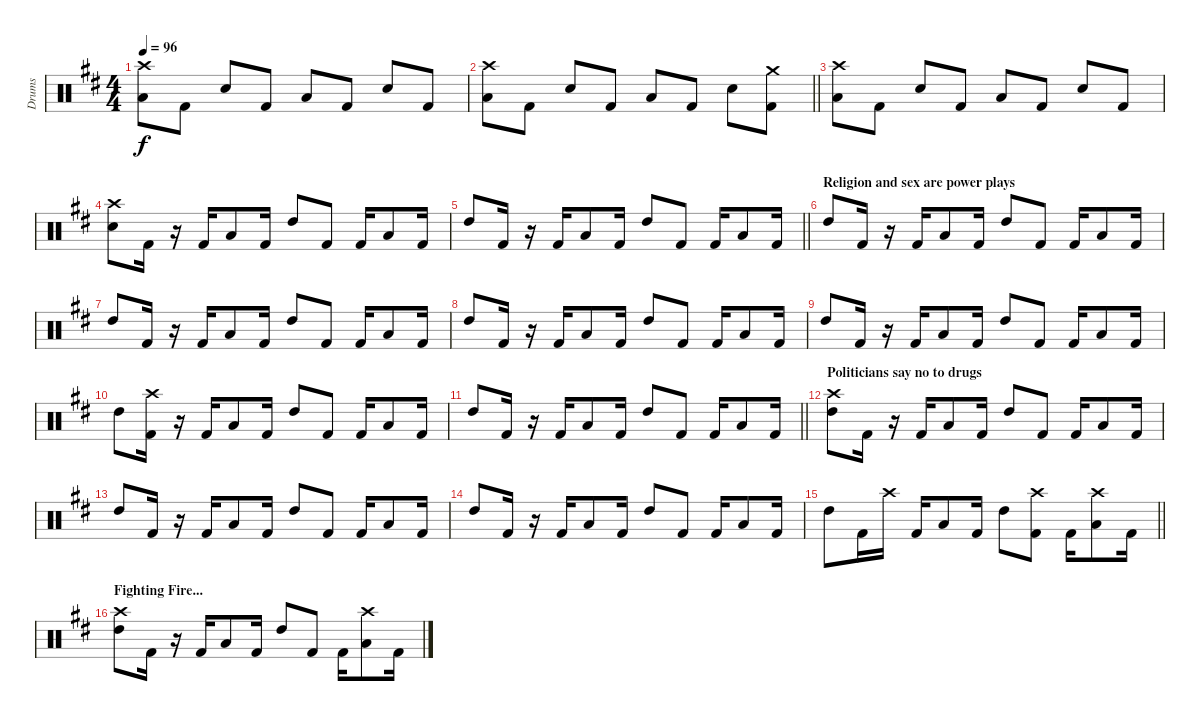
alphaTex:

\track ("Drums" "Drums") {instrument percussion}
\staff {score}
\articulation defaults
\ts (4 4)
\tempo 96
\clef neutral
\ks d
("Crash high (hit)" "Low Tom (hit)").8{dy f} "Kick (hit) 2".8 "Snare (hit) 2".8 "Kick (hit) 2".8 "Low Tom (hit)".8 "Kick (hit) 2".8 "Snare (hit) 2".8 "Kick (hit) 2".8 |
\barLineRight lightlight
("Crash high (hit)" "Low Tom (hit)").8 "Kick (hit) 2".8 "Snare (hit) 2".8 "Kick (hit) 2".8 "Low Tom (hit)".8 "Kick (hit) 2".8 "Snare (hit) 2".8 ("Crash medium (hit)" "Kick (hit) 2").8 |
("Crash high (hit)" "Low Tom (hit)").8 "Kick (hit) 2".8 "Snare (hit) 2".8 "Kick (hit) 2".8 "Low Tom (hit)".8 "Kick (hit) 2".8 "Snare (hit) 2".8 "Kick (hit) 2".8 |
("Crash high (hit)" "Snare (hit) 2").8 "Kick (hit) 2".16 r.16 "Kick (hit) 2".16 "Low Tom (hit)".8 "Kick (hit) 2".16 "High Tom (hit)".8 "Kick (hit) 2".8 "Kick (hit) 2".16 "Low Tom (hit)".8 "Kick (hit) 2".16 |
\barLineRight lightlight "High Tom (hit)".8 "Kick (hit) 2".16
r.16 "Kick (hit) 2".16 "Low Tom (hit)".8 "Kick (hit) 2".16 "High Tom (hit)".8 "Kick (hit) 2".8 "Kick (hit) 2".16 "Low Tom (hit)".8 "Kick (hit) 2".16 |
\section ("" "Religion and sex are power plays")
"High Tom (hit)".8 "Kick (hit) 2".16 r.16 "Kick (hit) 2".16 "Low Tom (hit)".8 "Kick (hit) 2".16 "High Tom (hit)".8 "Kick (hit) 2".8 "Kick (hit) 2".16 "Low Tom (hit)".8 "Kick (hit) 2".16 |
"High Tom (hit)".8 "Kick (hit) 2".16 r.16 "Kick (hit) 2".16 "Low Tom (hit)".8 "Kick (hit) 2".16 "High Tom (hit)".8 "Kick (hit) 2".8 "Kick (hit) 2".16 "Low Tom (hit)".8 "Kick (hit) 2".16 |
"High Tom (hit)".8 "Kick (hit) 2".16 r.16 "Kick (hit) 2".16 "Low Tom (hit)".8 "Kick (hit) 2".16 "High Tom (hit)".8 "Kick (hit) 2".8 "Kick (hit) 2".16 "Low Tom (hit)".8 "Kick (hit) 2".16 |
"High Tom (hit)".8 "Kick (hit) 2".16 r.16 "Kick (hit) 2".16 "Low Tom (hit)".8 "Kick (hit) 2".16 "High Tom (hit)".8 "Kick (hit) 2".8 "Kick (hit) 2".16 "Low Tom (hit)".8 "Kick (hit) 2".16 |
"High Tom (hit)".8 ("Crash high (hit)" "Kick (hit) 2").16 r.16 "Kick (hit) 2".16 "Low Tom (hit)".8 "Kick (hit) 2".16 "High Tom (hit)".8 "Kick (hit) 2".8 "Kick (hit) 2".16 "Low Tom (hit)".8 "Kick (hit) 2".16 |
\barLineRight lightlight "High Tom (hit)".8 "Kick (hit) 2".16
r.16 "Kick (hit) 2".16 "Low Tom (hit)".8 "Kick (hit) 2".16 "High Tom (hit)".8 "Kick (hit) 2".8 "Kick (hit) 2".16 "Low Tom (hit)".8 "Kick (hit) 2".16 |
\section ("" "Politicians say no to drugs")
("Crash high (hit)" "High Tom (hit)").8 "Kick (hit) 2".16 r.16 "Kick (hit) 2".16 "Low Tom (hit)".8 "Kick (hit) 2".16 "High Tom (hit)".8 "Kick (hit) 2".8 "Kick (hit) 2".16 "Low Tom (hit)".8 "Kick (hit) 2".16 |
"High Tom (hit)".8 "Kick (hit) 2".16 r.16 "Kick (hit) 2".16 "Low Tom (hit)".8 "Kick (hit) 2".16 "High Tom (hit)".8 "Kick (hit) 2".8 "Kick (hit) 2".16 "Low Tom (hit)".8 "Kick (hit) 2".16 |
"High Tom (hit)".8 "Kick (hit) 2".16 r.16 "Kick (hit) 2".16 "Low Tom (hit)".8 "Kick (hit) 2".16 "High Tom (hit)".8 "Kick (hit) 2".8 "Kick (hit) 2".16 "Low Tom (hit)".8 "Kick (hit) 2".16 |
\barLineRight lightlight "High Tom (hit)".8 "Kick (hit) 2".16 "Crash high (hit)".16 "Kick (hit) 2".16 "Low Tom (hit)".8 "Kick (hit) 2".16 "High Tom (hit)".8
("Crash high (hit)" "Kick (hit) 2").8 "Kick (hit) 2".16 ("Crash high (hit)" "Low Tom (hit)").8 "Kick (hit) 2".16 |
\section ("" "Fighting Fire...")
("Crash high (hit)" "High Tom (hit)").8 "Kick (hit) 2".16 r.16 "Kick (hit) 2".16 "Low Tom (hit)".8 "Kick (hit) 2".16 "High Tom (hit)".8 "Kick (hit) 2".8 "Kick (hit) 2".16 ("Crash high (hit)" "Low Tom (hit)").8 "Kick (hit) 2".16
